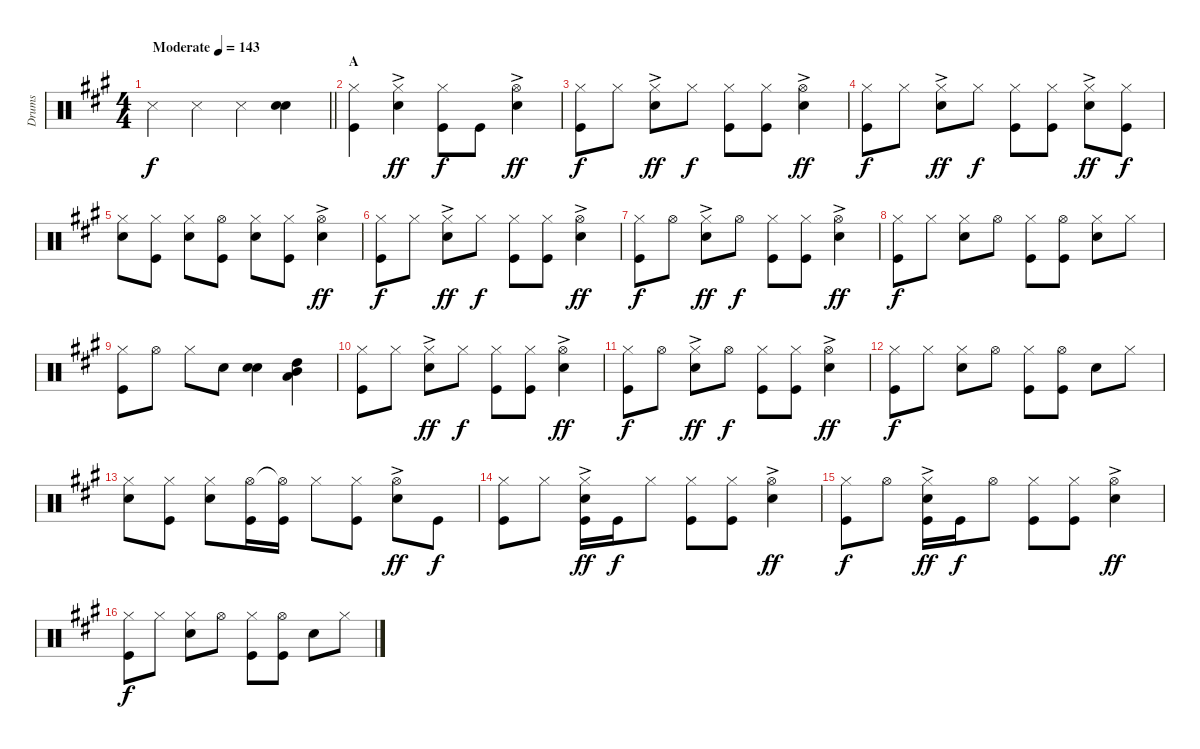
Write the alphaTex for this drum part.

\track ("Drums" "Drums") {instrument percussion}
\staff {score}
\articulation defaults
\ts (4 4)
\tempo (143 "Moderate")
\clef neutral
\barLineRight lightlight
\ks a "Snare (side stick) 3".4{dy f} "Snare (side stick) 3".4 "Snare (side stick) 3".4
("Snare (hit) 2" "Snare (hit) 2").4{bd 240 volume 6} |
\section ("" "A")
("Hi-Hat (closed)" "Kick (hit)").4{volume 9} ("Hi-Hat (closed)" "Snare (hit) 2"{ac}).4{dy ff} ("Hi-Hat (closed)" "Kick (hit)").8{dy f} "Kick (hit)".8 ("Hi-Hat (open)"{ac} "Snare (hit) 2").4{dy ff} |
("Hi-Hat (closed)" "Kick (hit)").8{dy f} "Hi-Hat (closed)".8 ("Hi-Hat (closed)" "Snare (hit) 2"{ac}).8{dy ff} "Hi-Hat (closed)".8{dy f} ("Hi-Hat (closed)" "Kick (hit)").8 ("Hi-Hat (closed)" "Kick (hit)").8 ("Hi-Hat (open)"{ac} "Snare (hit) 2").4{dy ff} |
("Hi-Hat (closed)" "Kick (hit)").8{dy f} "Hi-Hat (closed)".8 ("Hi-Hat (closed)" "Snare (hit) 2"{ac}).8{dy ff} "Hi-Hat (closed)".8{dy f} ("Hi-Hat (closed)" "Kick (hit)").8 ("Hi-Hat (closed)" "Kick (hit)").8 ("Hi-Hat (closed)"{ac} "Snare (hit) 2").8{dy ff} ("Hi-Hat (closed)" "Kick (hit)").8{dy f} |
("Hi-Hat (closed)" "Snare (hit) 2").8 ("Hi-Hat (closed)" "Kick (hit)").8 ("Hi-Hat (closed)" "Snare (hit) 2").8 ("Hi-Hat (open)" "Kick (hit)").8 ("Hi-Hat (closed)" "Snare (hit) 2").8 ("Hi-Hat (closed)" "Kick (hit)").8 ("Hi-Hat (open)" "Snare (hit) 2"{ac}).4{dy ff} |
("Hi-Hat (closed)" "Kick (hit)").8{dy f} "Hi-Hat (closed)".8 ("Hi-Hat (closed)" "Snare (hit) 2"{ac}).8{dy ff} "Hi-Hat (closed)".8{dy f} ("Hi-Hat (closed)" "Kick (hit)").8 ("Hi-Hat (closed)" "Kick (hit)").8 ("Hi-Hat (open)"{ac} "Snare (hit) 2").4{dy ff} |
("Hi-Hat (closed)" "Kick (hit)").8{dy f} "Hi-Hat (open)".8 ("Hi-Hat (closed)" "Snare (hit) 2"{ac}).8{dy ff} "Hi-Hat (open)".8{dy f} ("Hi-Hat (closed)" "Kick (hit)").8 ("Hi-Hat (closed)" "Kick (hit)").8 ("Hi-Hat (open)"{ac} "Snare (hit) 2").4{dy ff} |
("Hi-Hat (closed)" "Kick (hit)").8{dy f} "Hi-Hat (closed)".8 ("Hi-Hat (closed)" "Snare (hit) 2").8 "Hi-Hat (open)".8 ("Hi-Hat (closed)" "Kick (hit)").8 ("Hi-Hat (open)" "Kick (hit)").8 ("Hi-Hat (closed)" "Snare (hit) 2").8 "Hi-Hat (closed)".8 |
("Hi-Hat (closed)" "Kick (hit)").8 "Hi-Hat (open)".8 "Hi-Hat (closed)".8 "Snare (hit) 2".8 ("Snare (hit) 2" "Snare (hit) 2").4{bd 120} ("Low Tom (hit)" "Mid Tom (hit)" "High Tom (hit)").4{bd 240} |
("Hi-Hat (closed)" "Kick (hit)").8 "Hi-Hat (closed)".8 ("Hi-Hat (closed)" "Snare (hit) 2"{ac}).8{dy ff} "Hi-Hat (closed)".8{dy f} ("Hi-Hat (closed)" "Kick (hit)").8 ("Hi-Hat (closed)" "Kick (hit)").8 ("Hi-Hat (open)"{ac} "Snare (hit) 2").4{dy ff} |
("Hi-Hat (closed)" "Kick (hit)").8{dy f} "Hi-Hat (open)".8 ("Hi-Hat (closed)" "Snare (hit) 2"{ac}).8{dy ff} "Hi-Hat (open)".8{dy f} ("Hi-Hat (closed)" "Kick (hit)").8 ("Hi-Hat (closed)" "Kick (hit)").8 ("Hi-Hat (open)"{ac} "Snare (hit) 2").4{dy ff} |
("Hi-Hat (closed)" "Kick (hit)").8{dy f} "Hi-Hat (closed)".8 ("Hi-Hat (closed)" "Snare (hit) 2").8 "Hi-Hat (open)".8 ("Hi-Hat (closed)" "Kick (hit)").8 ("Hi-Hat (open)" "Kick (hit)").8 "Snare (hit) 2".8 "Hi-Hat (closed)".8 |
("Hi-Hat (closed)" "Snare (hit) 2").8 ("Hi-Hat (closed)" "Kick (hit)").8 ("Hi-Hat (closed)" "Snare (hit) 2").8 ("Hi-Hat (open)" "Kick (hit)").16 ("Hi-Hat (open)"{t} "Kick (hit)").16 "Hi-Hat (closed)".8 ("Hi-Hat (closed)" "Kick (hit)").8 ("Hi-Hat (open)" "Snare (hit) 2"{ac}).8{dy ff} "Kick (hit)".8{dy f} |
("Hi-Hat (closed)" "Kick (hit)").8 "Hi-Hat (closed)".8 ("Hi-Hat (closed)" "Snare (hit) 2"{ac} "Kick (hit)").16{dy ff} "Kick (hit)".16{dy f} "Hi-Hat (closed)".8 ("Hi-Hat (closed)" "Kick (hit)").8 ("Hi-Hat (closed)" "Kick (hit)").8 ("Hi-Hat (open)"{ac} "Snare (hit) 2").4{dy ff} |
("Hi-Hat (closed)" "Kick (hit)").8{dy f} "Hi-Hat (open)".8 ("Hi-Hat (closed)" "Snare (hit) 2"{ac} "Kick (hit)").16{dy ff} "Kick (hit)".16{dy f} "Hi-Hat (open)".8 ("Hi-Hat (closed)" "Kick (hit)").8 ("Hi-Hat (closed)" "Kick (hit)").8 ("Hi-Hat (open)"{ac} "Snare (hit) 2").4{dy ff} |
("Hi-Hat (closed)" "Kick (hit)").8{dy f} "Hi-Hat (closed)".8 ("Hi-Hat (closed)" "Snare (hit) 2").8 "Hi-Hat (open)".8 ("Hi-Hat (closed)" "Kick (hit)").8 ("Hi-Hat (open)" "Kick (hit)").8 "Snare (hit) 2".8 "Hi-Hat (closed)".8
